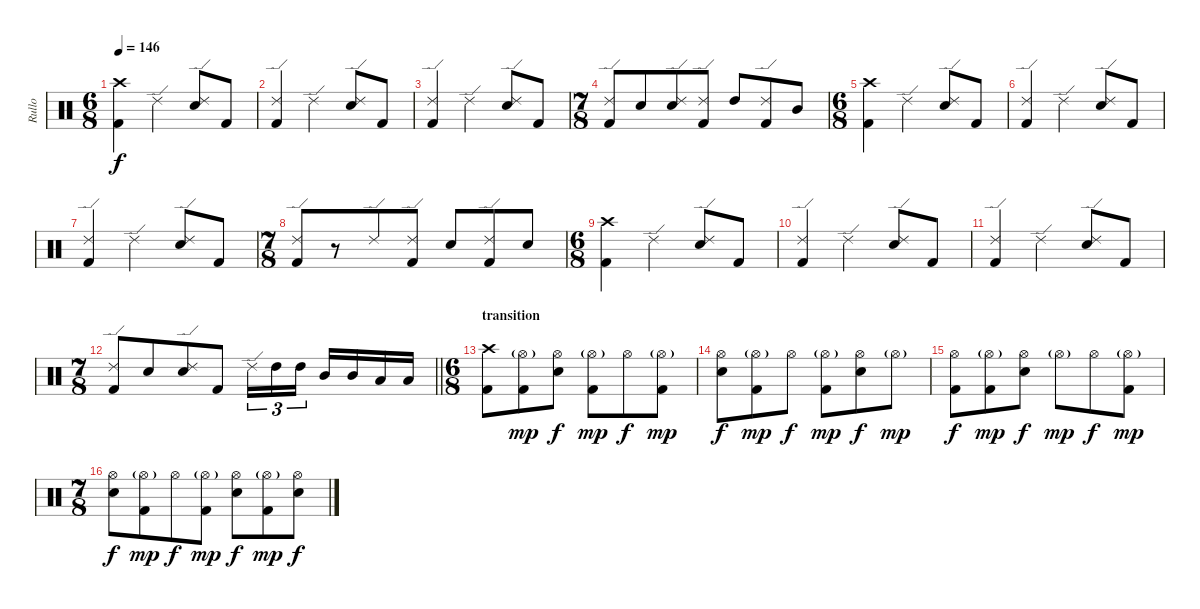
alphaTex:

\track ("Rullo" "Rullo") {instrument percussion}
\staff {score}
\articulation defaults
\ts (6 8)
\tempo 146
\clef neutral
\ks c
("Crash high (hit)" "Kick (hit) 2").4{dy f} "Ride (edge) 2".4 ("Ride (edge) 2" "Electric Snare (hit)").8 "Kick (hit) 2".8 |
("Ride (edge) 2" "Kick (hit) 2").4 "Ride (edge) 2".4 ("Ride (edge) 2" "Electric Snare (hit)").8 "Kick (hit) 2".8 |
("Ride (edge) 2" "Kick (hit) 2").4 "Ride (edge) 2".4 ("Ride (edge) 2" "Electric Snare (hit)").8 "Kick (hit) 2".8 |
\ts (7 8)
("Ride (edge) 2" "Kick (hit) 2").8 "Electric Snare (hit)".8 ("Ride (edge) 2" "Electric Snare (hit)").8 ("Ride (edge) 2" "Kick (hit) 2").8 "High Tom (hit)".8 ("Ride (edge) 2" "Kick (hit) 2").8 "Mid Tom (hit)".8 |
\ts (6 8)
("Crash high (hit)" "Kick (hit) 2").4 "Ride (edge) 2".4 ("Ride (edge) 2" "Electric Snare (hit)").8 "Kick (hit) 2".8 |
("Ride (edge) 2" "Kick (hit) 2").4 "Ride (edge) 2".4 ("Ride (edge) 2" "Electric Snare (hit)").8 "Kick (hit) 2".8 |
("Ride (edge) 2" "Kick (hit) 2").4 "Ride (edge) 2".4 ("Ride (edge) 2" "Electric Snare (hit)").8 "Kick (hit) 2".8 |
\ts (7 8)
("Ride (edge) 2" "Kick (hit) 2").8 r.8 "Ride (edge) 2".8 ("Ride (edge) 2" "Kick (hit) 2").8 "Electric Snare (hit)".8 ("Ride (edge) 2" "Kick (hit) 2").8 "Electric Snare (hit)".8 |
\ts (6 8)
("Crash high (hit)" "Kick (hit) 2").4 "Ride (edge) 2".4 ("Ride (edge) 2" "Electric Snare (hit)").8 "Kick (hit) 2".8 |
("Ride (edge) 2" "Kick (hit) 2").4 "Ride (edge) 2".4 ("Ride (edge) 2" "Electric Snare (hit)").8 "Kick (hit) 2".8 |
("Ride (edge) 2" "Kick (hit) 2").4 "Ride (edge) 2".4 ("Ride (edge) 2" "Electric Snare (hit)").8 "Kick (hit) 2".8 |
\ts (7 8)
\barLineRight lightlight
("Ride (edge) 2" "Kick (hit) 2").8 "Electric Snare (hit)".8 ("Ride (edge) 2" "Electric Snare (hit)").8 "Kick (hit) 2".8 "Ride (edge) 2".16{tu (3 2)} "High Tom (hit)".16{tu (3 2)} "High Tom (hit)".16{tu (3 2)} "Mid Tom (hit)".16 "Mid Tom (hit)".16 "Low Tom (hit)".16 "Low Tom (hit)".16 |
\ts (6 8)
\section ("" "transition")
("Crash high (hit)" "Kick (hit) 2").8 ("Hi-Hat (open)"{g} "Kick (hit) 2").8{dy mp} ("Hi-Hat (open)" "Electric Snare (hit)").8{dy f} ("Hi-Hat (open)"{g} "Kick (hit) 2").8{dy mp} "Hi-Hat (open)".8{dy f} ("Hi-Hat (open)"{g} "Kick (hit) 2").8{dy mp} |
("Hi-Hat (open)" "Electric Snare (hit)").8{dy f} ("Hi-Hat (open)"{g} "Kick (hit) 2").8{dy mp} "Hi-Hat (open)".8{dy f} ("Hi-Hat (open)"{g} "Kick (hit) 2").8{dy mp} ("Hi-Hat (open)" "Electric Snare (hit)").8{dy f} "Hi-Hat (open)"{g}.8{dy mp} |
("Hi-Hat (open)" "Kick (hit) 2").8{dy f} ("Hi-Hat (open)"{g} "Kick (hit) 2").8{dy mp} ("Hi-Hat (open)" "Electric Snare (hit)").8{dy f} "Hi-Hat (open)"{g}.8{dy mp} "Hi-Hat (open)".8{dy f} ("Hi-Hat (open)"{g} "Kick (hit) 2").8{dy mp} |
\ts (7 8)
("Hi-Hat (open)" "Electric Snare (hit)").8{dy f} ("Hi-Hat (open)"{g} "Kick (hit) 2").8{dy mp} "Hi-Hat (open)".8{dy f} ("Hi-Hat (open)"{g} "Kick (hit) 2").8{dy mp} ("Hi-Hat (open)" "Electric Snare (hit)").8{dy f} ("Hi-Hat (open)"{g} "Kick (hit) 2").8{dy mp} ("Hi-Hat (open)" "Electric Snare (hit)").8{dy f}
